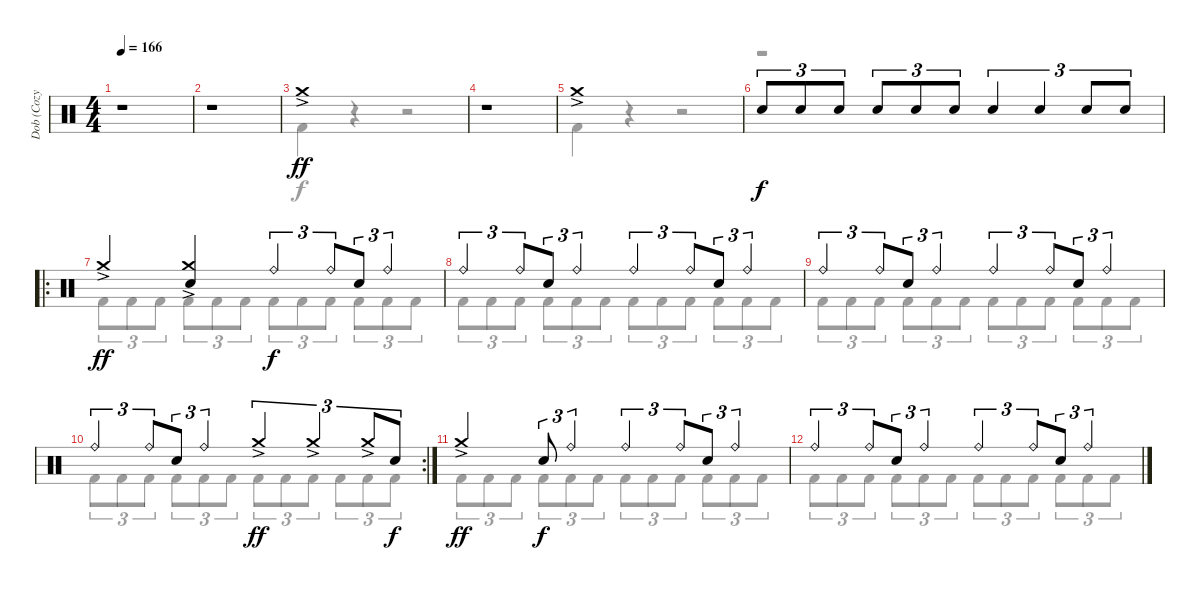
\track ("Dob (Cozy Powell)" "Dob (Cozy ") {instrument percussion}
\staff {score}
\articulation defaults
\voice
\ts (4 4)
\tempo 166
\clef neutral
\ks c
r.1{dy ff} |
r.1 |
"Crash medium (hit)"{ac}.1 |
r.1 |
"Crash medium (hit)"{ac}.1 |
"Electric Snare (hit)".8{tu (3 2) dy f} "Electric Snare (hit)".8{tu (3 2)} "Electric Snare (hit)".8{tu (3 2)} "Electric Snare (hit)".8{tu (3 2)} "Electric Snare (hit)".8{tu (3 2)} "Electric Snare (hit)".8{tu (3 2)} "Electric Snare (hit)".4{tu (3 2)} "Electric Snare (hit)".4{tu (3 2)} "Electric Snare (hit)".8{tu (3 2)} "Electric Snare (hit)".8{tu (3 2)} |
\ro "Crash medium (hit)"{ac}.4{dy ff}
("Crash medium (hit)"{ac} "Electric Snare (hit)").4 "Ride (bell)".4{tu (3 2) dy f} "Ride (bell)".8{tu (3 2) beam merge} "Electric Snare (hit)".8{tu (3 2)} "Ride (bell)".4{tu (3 2)} |
"Ride (bell)".4{tu (3 2)} "Ride (bell)".8{tu (3 2) beam merge} "Electric Snare (hit)".8{tu (3 2)} "Ride (bell)".4{tu (3 2)} "Ride (bell)".4{tu (3 2)} "Ride (bell)".8{tu (3 2) beam merge} "Electric Snare (hit)".8{tu (3 2)} "Ride (bell)".4{tu (3 2)} |
"Ride (bell)".4{tu (3 2)} "Ride (bell)".8{tu (3 2) beam merge} "Electric Snare (hit)".8{tu (3 2)} "Ride (bell)".4{tu (3 2)} "Ride (bell)".4{tu (3 2)} "Ride (bell)".8{tu (3 2) beam merge} "Electric Snare (hit)".8{tu (3 2)} "Ride (bell)".4{tu (3 2)} |
\rc 2 "Ride (bell)".4{tu (3 2)} "Ride (bell)".8{tu (3 2) beam merge} "Electric Snare (hit)".8{tu (3 2)} "Ride (bell)".4{tu (3 2)} "Crash medium (hit)"{ac}.4{tu (3 2) dy ff} "Crash medium (hit)"{ac}.4{tu (3 2)} "Crash medium (hit)"{ac}.8{tu (3 2)} "Electric Snare (hit)".8{tu (3 2) dy f}
|
"Crash medium (hit)"{ac}.4{dy ff} "Electric Snare (hit)".8{tu (3 2) dy f} "Ride (bell)".4{tu (3 2)} "Ride (bell)".4{tu (3 2)} "Ride (bell)".8{tu (3 2) beam merge} "Electric Snare (hit)".8{tu (3 2)} "Ride (bell)".4{tu (3 2)} |
"Ride (bell)".4{tu (3 2)} "Ride (bell)".8{tu (3 2) beam merge} "Electric Snare (hit)".8{tu (3 2)} "Ride (bell)".4{tu (3 2)} "Ride (bell)".4{tu (3 2)} "Ride (bell)".8{tu (3 2) beam merge} "Electric Snare (hit)".8{tu (3 2)} "Ride (bell)".4{tu (3 2)} |
\voice
\clef neutral
\ottava regular
\simile none
\ks c
r.1{dy f} |
r.1 |
"Kick (hit) 2".4 r.4 r.2 |
r.1 |
"Kick (hit) 2".4 r.4 r.2 |
r.1 |
"Kick (hit) 2".8{tu (3 2)} "Kick (hit) 2".8{tu (3 2)} "Kick (hit) 2".8{tu (3 2)} "Kick (hit) 2".8{tu (3 2)} "Kick (hit) 2".8{tu (3 2)} "Kick (hit) 2".8{tu (3 2)} "Kick (hit) 2".8{tu (3 2)} "Kick (hit) 2".8{tu (3 2)} "Kick (hit) 2".8{tu (3 2)} "Kick (hit) 2".8{tu (3 2)} "Kick (hit) 2".8{tu (3 2)} "Kick (hit) 2".8{tu (3 2)} |
"Kick (hit) 2".8{tu (3 2)} "Kick (hit) 2".8{tu (3 2)} "Kick (hit) 2".8{tu (3 2)} "Kick (hit) 2".8{tu (3 2)} "Kick (hit) 2".8{tu (3 2)} "Kick (hit) 2".8{tu (3 2)} "Kick (hit) 2".8{tu (3 2)} "Kick (hit) 2".8{tu (3 2)} "Kick (hit) 2".8{tu (3 2)} "Kick (hit) 2".8{tu (3 2)} "Kick (hit) 2".8{tu (3 2)} "Kick (hit) 2".8{tu (3 2)} |
"Kick (hit) 2".8{tu (3 2)} "Kick (hit) 2".8{tu (3 2)} "Kick (hit) 2".8{tu (3 2)} "Kick (hit) 2".8{tu (3 2)} "Kick (hit) 2".8{tu (3 2)} "Kick (hit) 2".8{tu (3 2)} "Kick (hit) 2".8{tu (3 2)} "Kick (hit) 2".8{tu (3 2)} "Kick (hit) 2".8{tu (3 2)} "Kick (hit) 2".8{tu (3 2)} "Kick (hit) 2".8{tu (3 2)} "Kick (hit) 2".8{tu (3 2)} |
"Kick (hit) 2".8{tu (3 2)} "Kick (hit) 2".8{tu (3 2)} "Kick (hit) 2".8{tu (3 2)} "Kick (hit) 2".8{tu (3 2)} "Kick (hit) 2".8{tu (3 2)} "Kick (hit) 2".8{tu (3 2)} "Kick (hit) 2".8{tu (3 2)} "Kick (hit) 2".8{tu (3 2)} "Kick (hit) 2".8{tu (3 2)} "Kick (hit) 2".8{tu (3 2)} "Kick (hit) 2".8{tu (3 2)} "Kick (hit) 2".8{tu (3 2)} |
"Kick (hit) 2".8{tu (3 2)} "Kick (hit) 2".8{tu (3 2)} "Kick (hit) 2".8{tu (3 2)} "Kick (hit) 2".8{tu (3 2)} "Kick (hit) 2".8{tu (3 2)} "Kick (hit) 2".8{tu (3 2)} "Kick (hit) 2".8{tu (3 2)} "Kick (hit) 2".8{tu (3 2)} "Kick (hit) 2".8{tu (3 2)} "Kick (hit) 2".8{tu (3 2)} "Kick (hit) 2".8{tu (3 2)} "Kick (hit) 2".8{tu (3 2)} |
"Kick (hit) 2".8{tu (3 2)} "Kick (hit) 2".8{tu (3 2)} "Kick (hit) 2".8{tu (3 2)} "Kick (hit) 2".8{tu (3 2)} "Kick (hit) 2".8{tu (3 2)} "Kick (hit) 2".8{tu (3 2)} "Kick (hit) 2".8{tu (3 2)} "Kick (hit) 2".8{tu (3 2)} "Kick (hit) 2".8{tu (3 2)} "Kick (hit) 2".8{tu (3 2)} "Kick (hit) 2".8{tu (3 2)} "Kick (hit) 2".8{tu (3 2)} |
